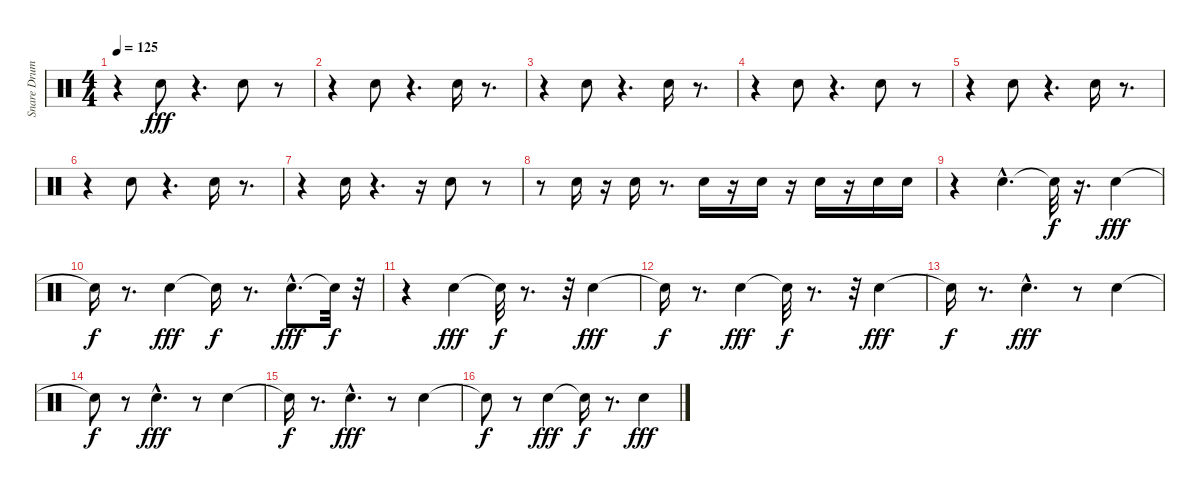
\track ("Snare Drum      " "Snare Drum") {instrument percussion}
\staff {score}
\articulation defaults
\ts (4 4)
\tempo 125
\clef neutral
\ks c
r.4{dy fff} "Snare (hit) 2".8 r.4{d} "Snare (hit) 2".8 r.8 |
r.4 "Snare (hit) 2".8 r.4{d} "Snare (hit) 2".16 r.8{d} |
r.4 "Snare (hit) 2".8 r.4{d} "Snare (hit) 2".16 r.8{d} |
r.4 "Snare (hit) 2".8 r.4{d} "Snare (hit) 2".8 r.8 |
r.4 "Snare (hit) 2".8 r.4{d} "Snare (hit) 2".16 r.8{d} |
r.4 "Snare (hit) 2".8 r.4{d} "Snare (hit) 2".16 r.8{d} |
r.4 "Snare (hit) 2".16 r.4{d} r.16 "Snare (hit) 2".8 r.8 |
r.8 "Snare (hit) 2".16 r.16 "Snare (hit) 2".16 r.8{d} "Snare (hit) 2".16 r.16 "Snare (hit) 2".16 r.16 "Snare (hit) 2".16 r.16 "Snare (hit) 2".16 "Snare (hit) 2".16 |
r.4 "Snare (hit) 2"{hac}.4{d} "Snare (hit)"{t}.32{dy f} r.16{d} "Snare (hit) 2".4{dy fff} |
"Snare (hit)"{t}.16{dy f} r.8{d} "Snare (hit) 2".4{dy fff} "Snare (hit)"{t}.16{dy f} r.8{d} "Snare (hit) 2"{hac}.8{d dy fff} "Snare (hit)"{t}.32{dy f} r.32 |
r.4 "Snare (hit) 2".4{dy fff} "Snare (hit)"{t}.32{dy f} r.8{d} r.32 "Snare (hit) 2".4{dy fff} |
"Snare (hit)"{t}.16{dy f} r.8{d} "Snare (hit) 2".4{dy fff} "Snare (hit)"{t}.32{dy f} r.8{d} r.32 "Snare (hit) 2".4{dy fff} |
"Snare (hit)"{t}.16{dy f} r.8{d} "Snare (hit) 2"{hac}.4{d dy fff} r.8 "Snare (hit) 2".4 |
"Snare (hit)"{t}.8{dy f} r.8 "Snare (hit) 2"{hac}.4{d dy fff} r.8 "Snare (hit) 2".4 |
"Snare (hit)"{t}.16{dy f} r.8{d} "Snare (hit) 2"{hac}.4{d dy fff} r.8 "Snare (hit) 2".4 |
"Snare (hit)"{t}.8{dy f} r.8 "Snare (hit) 2".4{dy fff} "Snare (hit)"{t}.16{dy f} r.8{d} "Snare (hit) 2".4{dy fff}
